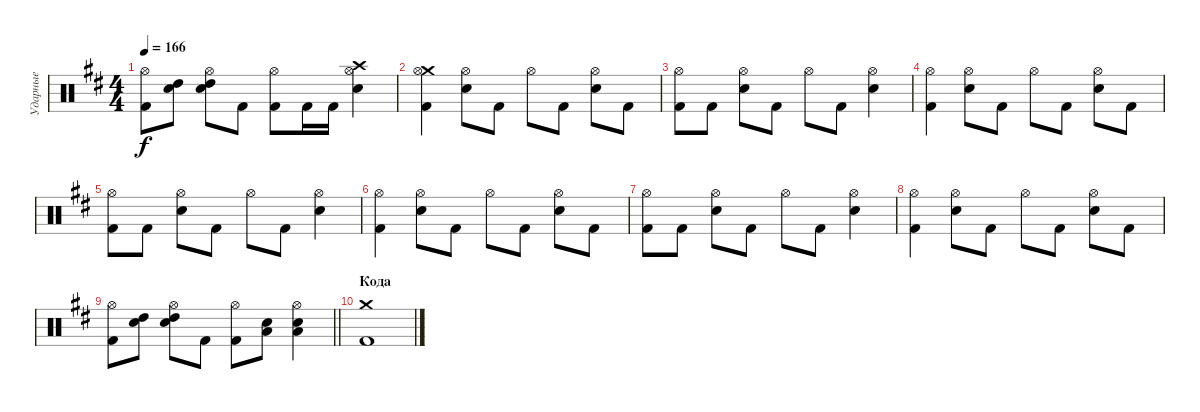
\track ("Ударные" "Ударные") {instrument percussion}
\staff {score}
\articulation defaults
\ts (4 4)
\tempo 166
\clef neutral
\ks bminor
("Kick (hit) 2" "Hi-Hat (open)").8{dy f} ("High Tom (hit)" "Electric Snare (hit)").8 ("High Tom (hit)" "Electric Snare (hit)" "Hi-Hat (open)").8 "Kick (hit) 2".8 ("Kick (hit) 2" "Hi-Hat (open)").8 "Kick (hit) 2".16 "Kick (hit) 2".16 ("Crash high (hit)" "Electric Snare (hit)" "Hi-Hat (open)").4 |
("Crash medium (hit)" "Kick (hit) 2" "Hi-Hat (open)").4 ("Electric Snare (hit)" "Hi-Hat (open)").8 "Kick (hit) 2".8 "Hi-Hat (open)".8 "Kick (hit) 2".8 ("Electric Snare (hit)" "Hi-Hat (open)").8 "Kick (hit) 2".8 |
("Kick (hit) 2" "Hi-Hat (open)").8 "Kick (hit) 2".8 ("Electric Snare (hit)" "Hi-Hat (open)").8 "Kick (hit) 2".8 "Hi-Hat (open)".8 "Kick (hit) 2".8 ("Electric Snare (hit)" "Hi-Hat (open)").4 |
("Kick (hit) 2" "Hi-Hat (open)").4 ("Electric Snare (hit)" "Hi-Hat (open)").8 "Kick (hit) 2".8 "Hi-Hat (open)".8 "Kick (hit) 2".8 ("Electric Snare (hit)" "Hi-Hat (open)").8 "Kick (hit) 2".8 |
("Kick (hit) 2" "Hi-Hat (open)").8 "Kick (hit) 2".8 ("Electric Snare (hit)" "Hi-Hat (open)").8 "Kick (hit) 2".8 "Hi-Hat (open)".8 "Kick (hit) 2".8 ("Electric Snare (hit)" "Hi-Hat (open)").4 |
("Kick (hit) 2" "Hi-Hat (open)").4 ("Electric Snare (hit)" "Hi-Hat (open)").8 "Kick (hit) 2".8 "Hi-Hat (open)".8 "Kick (hit) 2".8 ("Electric Snare (hit)" "Hi-Hat (open)").8 "Kick (hit) 2".8 |
("Kick (hit) 2" "Hi-Hat (open)").8 "Kick (hit) 2".8 ("Electric Snare (hit)" "Hi-Hat (open)").8 "Kick (hit) 2".8 "Hi-Hat (open)".8 "Kick (hit) 2".8 ("Electric Snare (hit)" "Hi-Hat (open)").4 |
("Kick (hit) 2" "Hi-Hat (open)").4 ("Electric Snare (hit)" "Hi-Hat (open)").8 "Kick (hit) 2".8 "Hi-Hat (open)".8 "Kick (hit) 2".8 ("Electric Snare (hit)" "Hi-Hat (open)").8 "Kick (hit) 2".8 |
\barLineRight lightlight
("Kick (hit) 2" "Hi-Hat (open)").8 ("High Tom (hit)" "Electric Snare (hit)").8 ("High Tom (hit)" "Electric Snare (hit)" "Hi-Hat (open)").8 "Kick (hit) 2".8 ("Kick (hit) 2" "Hi-Hat (open)").8 ("Low Tom (hit)" "Electric Snare (hit)").8 ("Low Tom (hit)" "Electric Snare (hit)" "Hi-Hat (open)").4 |
\section ("" "Кода")
("Crash medium (hit)" "Kick (hit) 2").1
